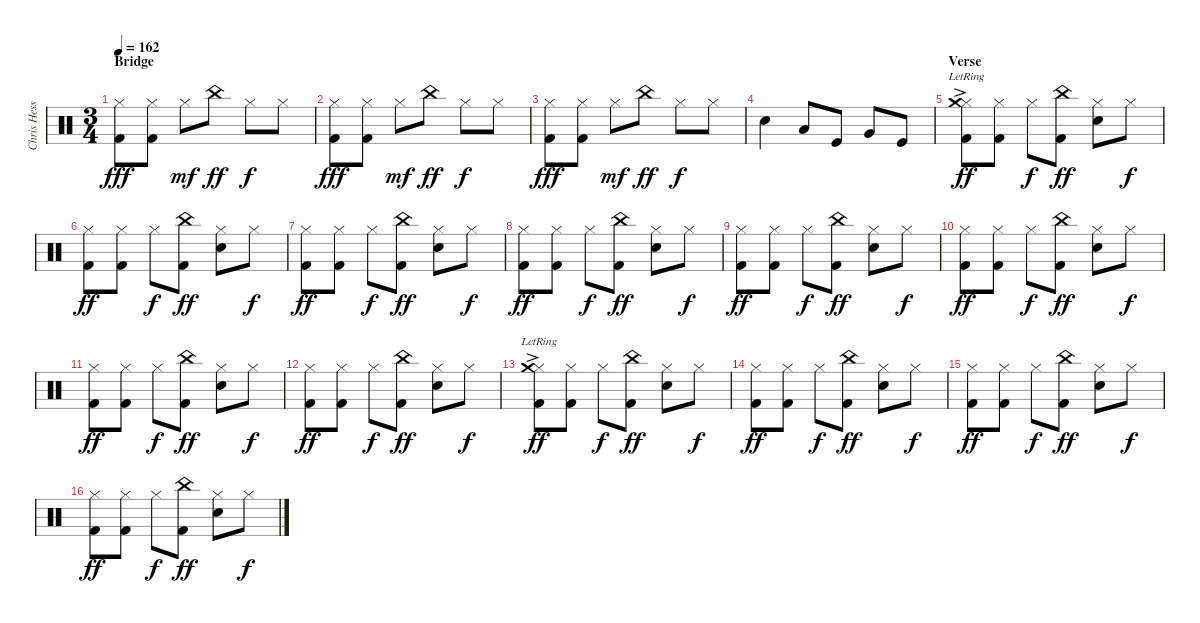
\track ("Chris Hesse" "Chris Hess") {instrument percussion}
\staff {score}
\articulation defaults
\ts (3 4)
\section ("" "Bridge")
\tempo 162
\clef neutral
\ks c
("Hi-Hat (closed)" "Kick (hit) 2").8{dy fff} ("Hi-Hat (closed)" "Kick (hit) 2").8 "Hi-Hat (closed)".8{dy mf} "China (hit)".8{dy ff} "Hi-Hat (closed)".8{dy f} "Hi-Hat (closed)".8 |
("Hi-Hat (closed)" "Kick (hit) 2").8{dy fff} ("Hi-Hat (closed)" "Kick (hit) 2").8 "Hi-Hat (closed)".8{dy mf} "China (hit)".8{dy ff} "Hi-Hat (closed)".8{dy f} "Hi-Hat (closed)".8 |
("Hi-Hat (closed)" "Kick (hit) 2").8{dy fff} ("Hi-Hat (closed)" "Kick (hit) 2").8 "Hi-Hat (closed)".8{dy mf} "China (hit)".8{dy ff} "Hi-Hat (closed)".8{dy f} "Hi-Hat (closed)".8 |
"Snare (hit) 2".4 "Low Tom (hit)".8 "Kick (hit)".8 "Very Low Tom (hit)".8 "Kick (hit)".8 |
\section ("" "Verse")
("Hi-Hat (closed)" "Crash medium (hit)"{ac lr} "Kick (hit) 2").8{dy ff} ("Hi-Hat (closed)" "Kick (hit) 2").8 "Hi-Hat (closed)".8{dy f} ("China (hit)" "Kick (hit) 2").8{dy ff} ("Hi-Hat (closed)" "Snare (hit) 2").8 "Hi-Hat (closed)".8{dy f} |
("Hi-Hat (closed)" "Kick (hit) 2").8{dy ff} ("Hi-Hat (closed)" "Kick (hit) 2").8 "Hi-Hat (closed)".8{dy f} ("China (hit)" "Kick (hit) 2").8{dy ff} ("Hi-Hat (closed)" "Snare (hit) 2").8 "Hi-Hat (closed)".8{dy f} |
("Hi-Hat (closed)" "Kick (hit) 2").8{dy ff} ("Hi-Hat (closed)" "Kick (hit) 2").8 "Hi-Hat (closed)".8{dy f} ("China (hit)" "Kick (hit) 2").8{dy ff} ("Hi-Hat (closed)" "Snare (hit) 2").8 "Hi-Hat (closed)".8{dy f} |
("Hi-Hat (closed)" "Kick (hit) 2").8{dy ff} ("Hi-Hat (closed)" "Kick (hit) 2").8 "Hi-Hat (closed)".8{dy f} ("China (hit)" "Kick (hit) 2").8{dy ff} ("Hi-Hat (closed)" "Snare (hit) 2").8 "Hi-Hat (closed)".8{dy f} |
("Hi-Hat (closed)" "Kick (hit) 2").8{dy ff} ("Hi-Hat (closed)" "Kick (hit) 2").8 "Hi-Hat (closed)".8{dy f} ("China (hit)" "Kick (hit) 2").8{dy ff} ("Hi-Hat (closed)" "Snare (hit) 2").8 "Hi-Hat (closed)".8{dy f} |
("Hi-Hat (closed)" "Kick (hit) 2").8{dy ff} ("Hi-Hat (closed)" "Kick (hit) 2").8 "Hi-Hat (closed)".8{dy f} ("China (hit)" "Kick (hit) 2").8{dy ff} ("Hi-Hat (closed)" "Snare (hit) 2").8 "Hi-Hat (closed)".8{dy f} |
("Hi-Hat (closed)" "Kick (hit) 2").8{dy ff} ("Hi-Hat (closed)" "Kick (hit) 2").8 "Hi-Hat (closed)".8{dy f} ("China (hit)" "Kick (hit) 2").8{dy ff} ("Hi-Hat (closed)" "Snare (hit) 2").8 "Hi-Hat (closed)".8{dy f} |
("Hi-Hat (closed)" "Kick (hit) 2").8{dy ff} ("Hi-Hat (closed)" "Kick (hit) 2").8 "Hi-Hat (closed)".8{dy f} ("China (hit)" "Kick (hit) 2").8{dy ff} ("Hi-Hat (closed)" "Snare (hit) 2").8 "Hi-Hat (closed)".8{dy f} |
("Hi-Hat (closed)" "Crash medium (hit)"{ac lr} "Kick (hit) 2").8{dy ff} ("Hi-Hat (closed)" "Kick (hit) 2").8 "Hi-Hat (closed)".8{dy f} ("China (hit)" "Kick (hit) 2").8{dy ff} ("Hi-Hat (closed)" "Snare (hit) 2").8 "Hi-Hat (closed)".8{dy f} |
("Hi-Hat (closed)" "Kick (hit) 2").8{dy ff} ("Hi-Hat (closed)" "Kick (hit) 2").8 "Hi-Hat (closed)".8{dy f} ("China (hit)" "Kick (hit) 2").8{dy ff} ("Hi-Hat (closed)" "Snare (hit) 2").8 "Hi-Hat (closed)".8{dy f} |
("Hi-Hat (closed)" "Kick (hit) 2").8{dy ff} ("Hi-Hat (closed)" "Kick (hit) 2").8 "Hi-Hat (closed)".8{dy f} ("China (hit)" "Kick (hit) 2").8{dy ff} ("Hi-Hat (closed)" "Snare (hit) 2").8 "Hi-Hat (closed)".8{dy f} |
("Hi-Hat (closed)" "Kick (hit) 2").8{dy ff} ("Hi-Hat (closed)" "Kick (hit) 2").8 "Hi-Hat (closed)".8{dy f} ("China (hit)" "Kick (hit) 2").8{dy ff} ("Hi-Hat (closed)" "Snare (hit) 2").8 "Hi-Hat (closed)".8{dy f}
